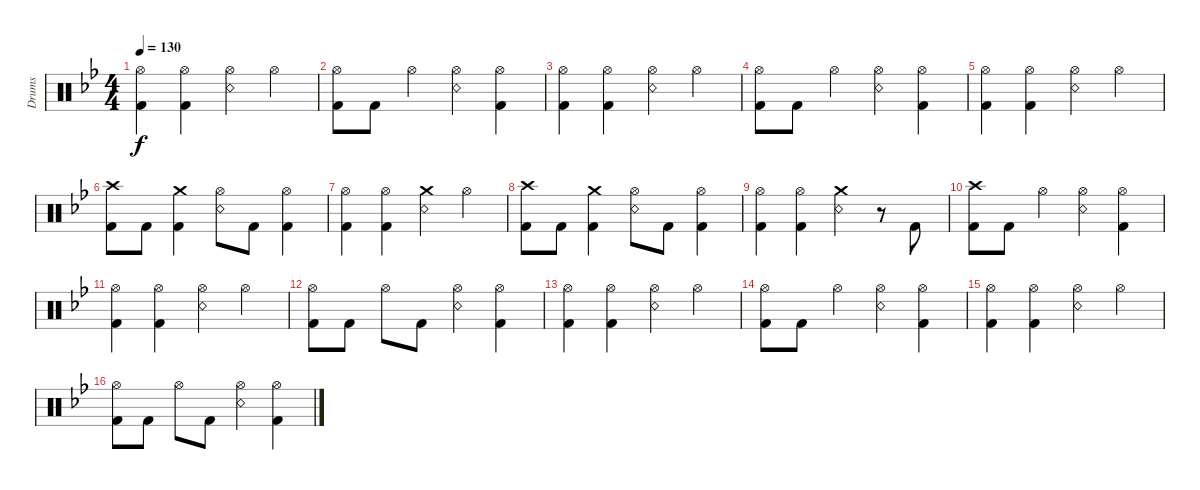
\bracketExtendMode groupsimilarinstruments
\otherSystemsTrackNameOrientation horizontal
\track ("Schlagzeug" "Drums") {instrument percussion}
\staff {score}
\articulation defaults
\ts (4 4)
\tempo 130
\clef neutral
\ks bb
("Kick (hit) 2"{acc forcenatural} "Hi-Hat (open)"{acc forcenatural}).4{dy f beam Down} ("Kick (hit) 2"{acc forcenatural} "Hi-Hat (open)"{acc forcenatural}).4{beam Down} ("Snare (rim shot)"{acc forcenatural} "Hi-Hat (open)"{acc forcenatural}).4{beam Down} "Hi-Hat (open)"{acc forcenatural}.4{beam Down} |
("Kick (hit) 2"{acc forcenatural} "Hi-Hat (open)"{acc forcenatural}).8{beam Down} "Kick (hit) 2"{acc forcenatural}.8{beam Down} "Hi-Hat (open)"{acc forcenatural}.4{beam Down} ("Snare (rim shot)"{acc forcenatural} "Hi-Hat (open)"{acc forcenatural}).4{beam Down} ("Kick (hit) 2"{acc forcenatural} "Hi-Hat (open)"{acc forcenatural}).4{beam Down} |
("Kick (hit) 2"{acc forcenatural} "Hi-Hat (open)"{acc forcenatural}).4{beam Down} ("Kick (hit) 2"{acc forcenatural} "Hi-Hat (open)"{acc forcenatural}).4{beam Down} ("Snare (rim shot)"{acc forcenatural} "Hi-Hat (open)"{acc forcenatural}).4{beam Down} "Hi-Hat (open)"{acc forcenatural}.4{beam Down} |
("Kick (hit) 2"{acc forcenatural} "Hi-Hat (open)"{acc forcenatural}).8{beam Down} "Kick (hit) 2"{acc forcenatural}.8{beam Down} "Hi-Hat (open)"{acc forcenatural}.4{beam Down} ("Snare (rim shot)"{acc forcenatural} "Hi-Hat (open)"{acc forcenatural}).4{beam Down} ("Kick (hit) 2"{acc forcenatural} "Hi-Hat (open)"{acc forcenatural}).4{beam Down} |
("Kick (hit) 2"{acc forcenatural} "Hi-Hat (open)"{acc forcenatural}).4{beam Down} ("Kick (hit) 2"{acc forcenatural} "Hi-Hat (open)"{acc forcenatural}).4{beam Down} ("Snare (rim shot)"{acc forcenatural} "Hi-Hat (open)"{acc forcenatural}).4{beam Down} "Hi-Hat (open)"{acc forcenatural}.4{beam Down} |
("Kick (hit) 2"{acc forcenatural} "Crash high (hit)"{acc forcenatural}).8{beam Down} "Kick (hit) 2"{acc forcenatural}.8{beam Down} ("Kick (hit) 2"{acc forcenatural} "Crash medium (hit)"{acc forcenatural}).4{beam Down} ("Snare (rim shot)"{acc forcenatural} "Hi-Hat (open)"{acc forcenatural}).8{beam Down} "Kick (hit) 2"{acc forcenatural}.8{beam Down} ("Kick (hit) 2"{acc forcenatural} "Hi-Hat (open)"{acc forcenatural}).4{beam Down} |
("Kick (hit) 2"{acc forcenatural} "Hi-Hat (open)"{acc forcenatural}).4{beam Down} ("Kick (hit) 2"{acc forcenatural} "Hi-Hat (open)"{acc forcenatural}).4{beam Down} ("Snare (rim shot)"{acc forcenatural} "Crash medium (hit)"{acc forcenatural}).4{beam Down} "Hi-Hat (open)"{acc forcenatural}.4{beam Down} |
("Kick (hit) 2"{acc forcenatural} "Crash high (hit)"{acc forcenatural}).8{beam Down} "Kick (hit) 2"{acc forcenatural}.8{beam Down} ("Kick (hit) 2"{acc forcenatural} "Crash medium (hit)"{acc forcenatural}).4{beam Down} ("Snare (rim shot)"{acc forcenatural} "Hi-Hat (open)"{acc forcenatural}).8{beam Down} "Kick (hit) 2"{acc forcenatural}.8{beam Down} ("Kick (hit) 2"{acc forcenatural} "Hi-Hat (open)"{acc forcenatural}).4{beam Down} |
("Kick (hit) 2"{acc forcenatural} "Hi-Hat (open)"{acc forcenatural}).4{beam Down} ("Kick (hit) 2"{acc forcenatural} "Hi-Hat (open)"{acc forcenatural}).4{beam Down} ("Snare (rim shot)"{acc forcenatural} "Crash medium (hit)"{acc forcenatural}).4{beam Down} r.8{beam Down} "Kick (hit) 2"{acc forcenatural}.8{beam Up} |
("Kick (hit) 2"{acc forcenatural} "Crash high (hit)"{acc forcenatural}).8{beam Down} "Kick (hit) 2"{acc forcenatural}.8{beam Down} "Hi-Hat (open)"{acc forcenatural}.4{beam Down} ("Snare (rim shot)"{acc forcenatural} "Hi-Hat (open)"{acc forcenatural}).4{beam Down} ("Kick (hit) 2"{acc forcenatural} "Hi-Hat (open)"{acc forcenatural}).4{beam Down} |
("Kick (hit) 2"{acc forcenatural} "Hi-Hat (open)"{acc forcenatural}).4{beam Down} ("Kick (hit) 2"{acc forcenatural} "Hi-Hat (open)"{acc forcenatural}).4{beam Down} ("Snare (rim shot)"{acc forcenatural} "Hi-Hat (open)"{acc forcenatural}).4{beam Down} "Hi-Hat (open)"{acc forcenatural}.4{beam Down} |
("Kick (hit) 2"{acc forcenatural} "Hi-Hat (open)"{acc forcenatural}).8{beam Down} "Kick (hit) 2"{acc forcenatural}.8{beam Down} "Hi-Hat (open)"{acc forcenatural}.8{beam Down} "Kick (hit) 2"{acc forcenatural}.8{beam Down} ("Snare (rim shot)"{acc forcenatural} "Hi-Hat (open)"{acc forcenatural}).4{beam Down} ("Kick (hit) 2"{acc forcenatural} "Hi-Hat (open)"{acc forcenatural}).4{beam Down} |
("Kick (hit) 2"{acc forcenatural} "Hi-Hat (open)"{acc forcenatural}).4{beam Down} ("Kick (hit) 2"{acc forcenatural} "Hi-Hat (open)"{acc forcenatural}).4{beam Down} ("Snare (rim shot)"{acc forcenatural} "Hi-Hat (open)"{acc forcenatural}).4{beam Down} "Hi-Hat (open)"{acc forcenatural}.4{beam Down} |
("Kick (hit) 2"{acc forcenatural} "Hi-Hat (open)"{acc forcenatural}).8{beam Down} "Kick (hit) 2"{acc forcenatural}.8{beam Down} "Hi-Hat (open)"{acc forcenatural}.4{beam Down} ("Snare (rim shot)"{acc forcenatural} "Hi-Hat (open)"{acc forcenatural}).4{beam Down} ("Kick (hit) 2"{acc forcenatural} "Hi-Hat (open)"{acc forcenatural}).4{beam Down} |
("Kick (hit) 2"{acc forcenatural} "Hi-Hat (open)"{acc forcenatural}).4{beam Down} ("Kick (hit) 2"{acc forcenatural} "Hi-Hat (open)"{acc forcenatural}).4{beam Down} ("Snare (rim shot)"{acc forcenatural} "Hi-Hat (open)"{acc forcenatural}).4{beam Down} "Hi-Hat (open)"{acc forcenatural}.4{beam Down} |
("Kick (hit) 2"{acc forcenatural} "Hi-Hat (open)"{acc forcenatural}).8{beam Down} "Kick (hit) 2"{acc forcenatural}.8{beam Down} "Hi-Hat (open)"{acc forcenatural}.8{beam Down} "Kick (hit) 2"{acc forcenatural}.8{beam Down} ("Snare (rim shot)"{acc forcenatural} "Hi-Hat (open)"{acc forcenatural}).4{beam Down} ("Hi-Hat (open)"{acc forcenatural} "Kick (hit) 2"{acc forcenatural}).4{beam Down}
